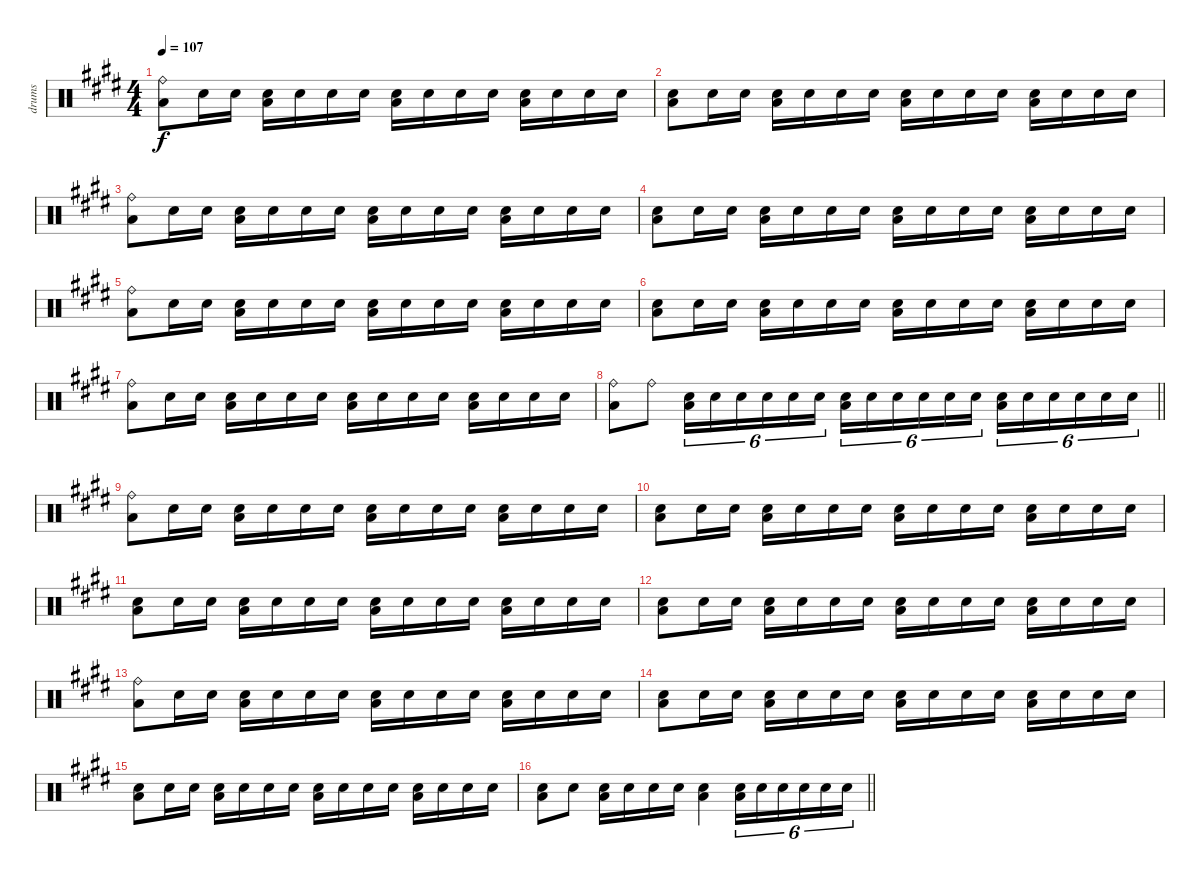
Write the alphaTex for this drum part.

\track ("drums" "drums") {instrument percussion}
\staff {score}
\articulation defaults
\ts (4 4)
\tempo 107
\clef neutral
\ks e
("Ride (bell)" "Low Floor Tom (hit)").8{dy f} "Electric Snare (hit)".16 "Electric Snare (hit)".16 ("Electric Snare (hit)" "Low Floor Tom (hit)").16 "Electric Snare (hit)".16 "Electric Snare (hit)".16 "Electric Snare (hit)".16 ("Electric Snare (hit)" "Low Floor Tom (hit)").16 "Electric Snare (hit)".16 "Electric Snare (hit)".16 "Electric Snare (hit)".16 ("Electric Snare (hit)" "Low Floor Tom (hit)").16 "Electric Snare (hit)".16 "Electric Snare (hit)".16 "Electric Snare (hit)".16 |
("Electric Snare (hit)" "Low Floor Tom (hit)").8 "Electric Snare (hit)".16 "Electric Snare (hit)".16 ("Electric Snare (hit)" "Low Floor Tom (hit)").16 "Electric Snare (hit)".16 "Electric Snare (hit)".16 "Electric Snare (hit)".16 ("Electric Snare (hit)" "Low Floor Tom (hit)").16 "Electric Snare (hit)".16 "Electric Snare (hit)".16 "Electric Snare (hit)".16 ("Electric Snare (hit)" "Low Floor Tom (hit)").16 "Electric Snare (hit)".16 "Electric Snare (hit)".16 "Electric Snare (hit)".16 |
("Ride (bell)" "Low Floor Tom (hit)").8 "Electric Snare (hit)".16 "Electric Snare (hit)".16 ("Electric Snare (hit)" "Low Floor Tom (hit)").16 "Electric Snare (hit)".16 "Electric Snare (hit)".16 "Electric Snare (hit)".16 ("Electric Snare (hit)" "Low Floor Tom (hit)").16 "Electric Snare (hit)".16 "Electric Snare (hit)".16 "Electric Snare (hit)".16 ("Electric Snare (hit)" "Low Floor Tom (hit)").16 "Electric Snare (hit)".16 "Electric Snare (hit)".16 "Electric Snare (hit)".16 |
("Electric Snare (hit)" "Low Floor Tom (hit)").8 "Electric Snare (hit)".16 "Electric Snare (hit)".16 ("Electric Snare (hit)" "Low Floor Tom (hit)").16 "Electric Snare (hit)".16 "Electric Snare (hit)".16 "Electric Snare (hit)".16 ("Electric Snare (hit)" "Low Floor Tom (hit)").16 "Electric Snare (hit)".16 "Electric Snare (hit)".16 "Electric Snare (hit)".16 ("Electric Snare (hit)" "Low Floor Tom (hit)").16 "Electric Snare (hit)".16 "Electric Snare (hit)".16 "Electric Snare (hit)".16 |
("Ride (bell)" "Low Floor Tom (hit)").8 "Electric Snare (hit)".16 "Electric Snare (hit)".16 ("Electric Snare (hit)" "Low Floor Tom (hit)").16 "Electric Snare (hit)".16 "Electric Snare (hit)".16 "Electric Snare (hit)".16 ("Electric Snare (hit)" "Low Floor Tom (hit)").16 "Electric Snare (hit)".16 "Electric Snare (hit)".16 "Electric Snare (hit)".16 ("Electric Snare (hit)" "Low Floor Tom (hit)").16 "Electric Snare (hit)".16 "Electric Snare (hit)".16 "Electric Snare (hit)".16 |
("Electric Snare (hit)" "Low Floor Tom (hit)").8 "Electric Snare (hit)".16 "Electric Snare (hit)".16 ("Electric Snare (hit)" "Low Floor Tom (hit)").16 "Electric Snare (hit)".16 "Electric Snare (hit)".16 "Electric Snare (hit)".16 ("Electric Snare (hit)" "Low Floor Tom (hit)").16 "Electric Snare (hit)".16 "Electric Snare (hit)".16 "Electric Snare (hit)".16 ("Electric Snare (hit)" "Low Floor Tom (hit)").16 "Electric Snare (hit)".16 "Electric Snare (hit)".16 "Electric Snare (hit)".16 |
("Ride (bell)" "Low Floor Tom (hit)").8 "Electric Snare (hit)".16 "Electric Snare (hit)".16 ("Electric Snare (hit)" "Low Floor Tom (hit)").16 "Electric Snare (hit)".16 "Electric Snare (hit)".16 "Electric Snare (hit)".16 ("Electric Snare (hit)" "Low Floor Tom (hit)").16 "Electric Snare (hit)".16 "Electric Snare (hit)".16 "Electric Snare (hit)".16 ("Electric Snare (hit)" "Low Floor Tom (hit)").16 "Electric Snare (hit)".16 "Electric Snare (hit)".16 "Electric Snare (hit)".16 |
\barLineRight lightlight
("Ride (bell)" "Low Floor Tom (hit)").8 "Ride (bell)".8 ("Electric Snare (hit)" "Low Floor Tom (hit)").16{tu (6 4)} "Electric Snare (hit)".16{tu (6 4)} "Electric Snare (hit)".16{tu (6 4)} "Electric Snare (hit)".16{tu (6 4)} "Electric Snare (hit)".16{tu (6 4)} "Electric Snare (hit)".16{tu (6 4)} ("Electric Snare (hit)" "Low Floor Tom (hit)").16{tu (6 4)} "Electric Snare (hit)".16{tu (6 4)} "Electric Snare (hit)".16{tu (6 4)} "Electric Snare (hit)".16{tu (6 4)} "Electric Snare (hit)".16{tu (6 4)} "Electric Snare (hit)".16{tu (6 4)} ("Electric Snare (hit)" "Low Floor Tom (hit)").16{tu (6 4)} "Electric Snare (hit)".16{tu (6 4)} "Electric Snare (hit)".16{tu (6 4)} "Electric Snare (hit)".16{tu (6 4)} "Electric Snare (hit)".16{tu (6 4)} "Electric Snare (hit)".16{tu (6 4)} |
("Ride (bell)" "Low Floor Tom (hit)").8 "Electric Snare (hit)".16 "Electric Snare (hit)".16 ("Electric Snare (hit)" "Low Floor Tom (hit)").16 "Electric Snare (hit)".16 "Electric Snare (hit)".16 "Electric Snare (hit)".16 ("Electric Snare (hit)" "Low Floor Tom (hit)").16 "Electric Snare (hit)".16 "Electric Snare (hit)".16 "Electric Snare (hit)".16 ("Electric Snare (hit)" "Low Floor Tom (hit)").16 "Electric Snare (hit)".16 "Electric Snare (hit)".16 "Electric Snare (hit)".16 |
("Electric Snare (hit)" "Low Floor Tom (hit)").8 "Electric Snare (hit)".16 "Electric Snare (hit)".16 ("Electric Snare (hit)" "Low Floor Tom (hit)").16 "Electric Snare (hit)".16 "Electric Snare (hit)".16 "Electric Snare (hit)".16 ("Electric Snare (hit)" "Low Floor Tom (hit)").16 "Electric Snare (hit)".16 "Electric Snare (hit)".16 "Electric Snare (hit)".16 ("Electric Snare (hit)" "Low Floor Tom (hit)").16 "Electric Snare (hit)".16 "Electric Snare (hit)".16 "Electric Snare (hit)".16 |
("Electric Snare (hit)" "Low Floor Tom (hit)").8 "Electric Snare (hit)".16 "Electric Snare (hit)".16 ("Electric Snare (hit)" "Low Floor Tom (hit)").16 "Electric Snare (hit)".16 "Electric Snare (hit)".16 "Electric Snare (hit)".16 ("Electric Snare (hit)" "Low Floor Tom (hit)").16 "Electric Snare (hit)".16 "Electric Snare (hit)".16 "Electric Snare (hit)".16 ("Electric Snare (hit)" "Low Floor Tom (hit)").16 "Electric Snare (hit)".16 "Electric Snare (hit)".16 "Electric Snare (hit)".16 |
("Electric Snare (hit)" "Low Floor Tom (hit)").8 "Electric Snare (hit)".16 "Electric Snare (hit)".16 ("Electric Snare (hit)" "Low Floor Tom (hit)").16 "Electric Snare (hit)".16 "Electric Snare (hit)".16 "Electric Snare (hit)".16 ("Electric Snare (hit)" "Low Floor Tom (hit)").16 "Electric Snare (hit)".16 "Electric Snare (hit)".16 "Electric Snare (hit)".16 ("Electric Snare (hit)" "Low Floor Tom (hit)").16 "Electric Snare (hit)".16 "Electric Snare (hit)".16 "Electric Snare (hit)".16 |
("Ride (bell)" "Low Floor Tom (hit)").8 "Electric Snare (hit)".16 "Electric Snare (hit)".16 ("Electric Snare (hit)" "Low Floor Tom (hit)").16 "Electric Snare (hit)".16 "Electric Snare (hit)".16 "Electric Snare (hit)".16 ("Electric Snare (hit)" "Low Floor Tom (hit)").16 "Electric Snare (hit)".16 "Electric Snare (hit)".16 "Electric Snare (hit)".16 ("Electric Snare (hit)" "Low Floor Tom (hit)").16 "Electric Snare (hit)".16 "Electric Snare (hit)".16 "Electric Snare (hit)".16 |
("Electric Snare (hit)" "Low Floor Tom (hit)").8 "Electric Snare (hit)".16 "Electric Snare (hit)".16 ("Electric Snare (hit)" "Low Floor Tom (hit)").16 "Electric Snare (hit)".16 "Electric Snare (hit)".16 "Electric Snare (hit)".16 ("Electric Snare (hit)" "Low Floor Tom (hit)").16 "Electric Snare (hit)".16 "Electric Snare (hit)".16 "Electric Snare (hit)".16 ("Electric Snare (hit)" "Low Floor Tom (hit)").16 "Electric Snare (hit)".16 "Electric Snare (hit)".16 "Electric Snare (hit)".16 |
("Electric Snare (hit)" "Low Floor Tom (hit)").8 "Electric Snare (hit)".16 "Electric Snare (hit)".16 ("Electric Snare (hit)" "Low Floor Tom (hit)").16 "Electric Snare (hit)".16 "Electric Snare (hit)".16 "Electric Snare (hit)".16 ("Electric Snare (hit)" "Low Floor Tom (hit)").16 "Electric Snare (hit)".16 "Electric Snare (hit)".16 "Electric Snare (hit)".16 ("Electric Snare (hit)" "Low Floor Tom (hit)").16 "Electric Snare (hit)".16 "Electric Snare (hit)".16 "Electric Snare (hit)".16 |
\barLineRight lightlight
("Electric Snare (hit)" "Low Floor Tom (hit)").8 "Electric Snare (hit)".8 ("Electric Snare (hit)" "Low Floor Tom (hit)").16 "Electric Snare (hit)".16 "Electric Snare (hit)".16 "Electric Snare (hit)".16 ("Electric Snare (hit)" "Low Floor Tom (hit)").4 ("Electric Snare (hit)" "Low Floor Tom (hit)").16{tu (6 4)} "Electric Snare (hit)".16{tu (6 4)} "Electric Snare (hit)".16{tu (6 4)} "Electric Snare (hit)".16{tu (6 4)} "Electric Snare (hit)".16{tu (6 4)} "Electric Snare (hit)".16{tu (6 4)}
